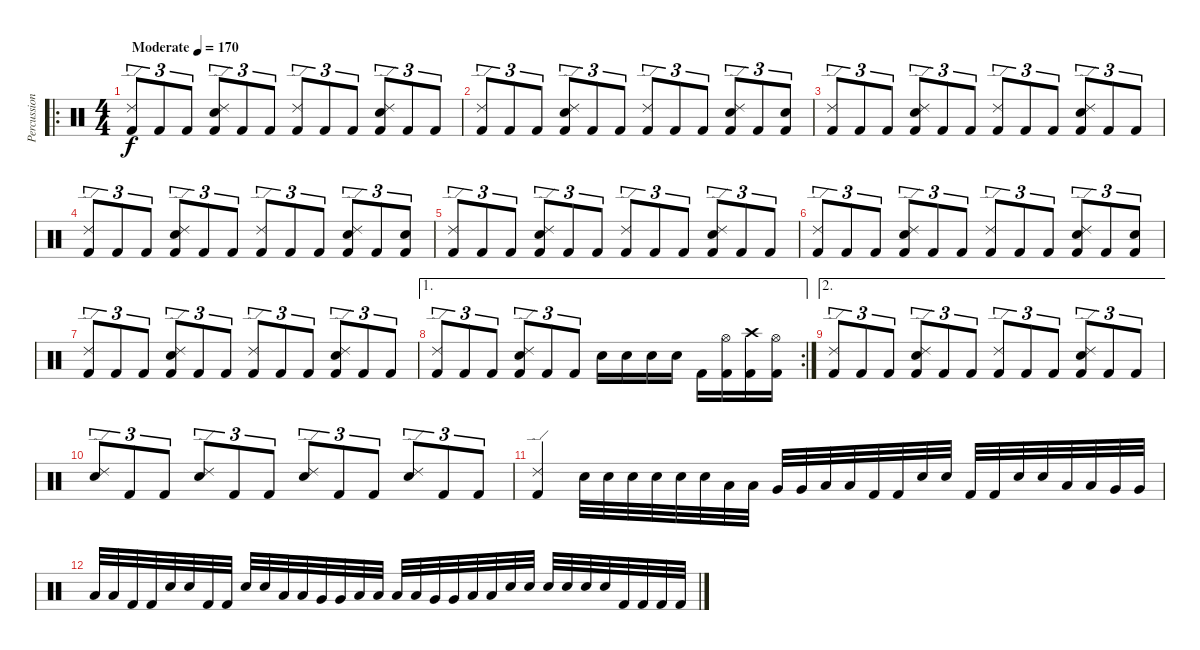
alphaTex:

\track ("Percussion" "Percussion") {instrument percussion}
\staff {score}
\articulation defaults
\ro
\ts (4 4)
\tempo (170 "Moderate")
\clef neutral
\ks c
("Ride (edge) 2" "Kick (hit) 2").8{tu (3 2) dy f} "Kick (hit) 2".8{tu (3 2)} "Kick (hit) 2".8{tu (3 2)} ("Ride (edge) 2" "Electric Snare (hit)" "Kick (hit) 2").8{tu (3 2)} "Kick (hit) 2".8{tu (3 2)} "Kick (hit) 2".8{tu (3 2)} ("Ride (edge) 2" "Kick (hit) 2").8{tu (3 2)} "Kick (hit) 2".8{tu (3 2)} "Kick (hit) 2".8{tu (3 2)} ("Ride (edge) 2" "Electric Snare (hit)" "Kick (hit) 2").8{tu (3 2)} "Kick (hit) 2".8{tu (3 2)} "Kick (hit) 2".8{tu (3 2)} |
("Ride (edge) 2" "Kick (hit) 2").8{tu (3 2)} "Kick (hit) 2".8{tu (3 2)} "Kick (hit) 2".8{tu (3 2)} ("Ride (edge) 2" "Electric Snare (hit)" "Kick (hit) 2").8{tu (3 2)} "Kick (hit) 2".8{tu (3 2)} "Kick (hit) 2".8{tu (3 2)} ("Ride (edge) 2" "Kick (hit) 2").8{tu (3 2)} "Kick (hit) 2".8{tu (3 2)} "Kick (hit) 2".8{tu (3 2)} ("Ride (edge) 2" "Electric Snare (hit)" "Kick (hit) 2").8{tu (3 2)} "Kick (hit) 2".8{tu (3 2)} ("Electric Snare (hit)" "Kick (hit) 2").8{tu (3 2)} |
("Ride (edge) 2" "Kick (hit) 2").8{tu (3 2)} "Kick (hit) 2".8{tu (3 2)} "Kick (hit) 2".8{tu (3 2)} ("Ride (edge) 2" "Electric Snare (hit)" "Kick (hit) 2").8{tu (3 2)} "Kick (hit) 2".8{tu (3 2)} "Kick (hit) 2".8{tu (3 2)} ("Ride (edge) 2" "Kick (hit) 2").8{tu (3 2)} "Kick (hit) 2".8{tu (3 2)} "Kick (hit) 2".8{tu (3 2)} ("Ride (edge) 2" "Electric Snare (hit)" "Kick (hit) 2").8{tu (3 2)} "Kick (hit) 2".8{tu (3 2)} "Kick (hit) 2".8{tu (3 2)} |
("Ride (edge) 2" "Kick (hit) 2").8{tu (3 2)} "Kick (hit) 2".8{tu (3 2)} "Kick (hit) 2".8{tu (3 2)} ("Ride (edge) 2" "Electric Snare (hit)" "Kick (hit) 2").8{tu (3 2)} "Kick (hit) 2".8{tu (3 2)} "Kick (hit) 2".8{tu (3 2)} ("Ride (edge) 2" "Kick (hit) 2").8{tu (3 2)} "Kick (hit) 2".8{tu (3 2)} "Kick (hit) 2".8{tu (3 2)} ("Ride (edge) 2" "Electric Snare (hit)" "Kick (hit) 2").8{tu (3 2)} "Kick (hit) 2".8{tu (3 2)} ("Electric Snare (hit)" "Kick (hit) 2").8{tu (3 2)} |
("Ride (edge) 2" "Kick (hit) 2").8{tu (3 2)} "Kick (hit) 2".8{tu (3 2)} "Kick (hit) 2".8{tu (3 2)} ("Ride (edge) 2" "Electric Snare (hit)" "Kick (hit) 2").8{tu (3 2)} "Kick (hit) 2".8{tu (3 2)} "Kick (hit) 2".8{tu (3 2)} ("Ride (edge) 2" "Kick (hit) 2").8{tu (3 2)} "Kick (hit) 2".8{tu (3 2)} "Kick (hit) 2".8{tu (3 2)} ("Ride (edge) 2" "Electric Snare (hit)" "Kick (hit) 2").8{tu (3 2)} "Kick (hit) 2".8{tu (3 2)} "Kick (hit) 2".8{tu (3 2)} |
("Ride (edge) 2" "Kick (hit) 2").8{tu (3 2)} "Kick (hit) 2".8{tu (3 2)} "Kick (hit) 2".8{tu (3 2)} ("Ride (edge) 2" "Electric Snare (hit)" "Kick (hit) 2").8{tu (3 2)} "Kick (hit) 2".8{tu (3 2)} "Kick (hit) 2".8{tu (3 2)} ("Ride (edge) 2" "Kick (hit) 2").8{tu (3 2)} "Kick (hit) 2".8{tu (3 2)} "Kick (hit) 2".8{tu (3 2)} ("Ride (edge) 2" "Electric Snare (hit)" "Kick (hit) 2").8{tu (3 2)} "Kick (hit) 2".8{tu (3 2)} ("Electric Snare (hit)" "Kick (hit) 2").8{tu (3 2)} |
("Ride (edge) 2" "Kick (hit) 2").8{tu (3 2)} "Kick (hit) 2".8{tu (3 2)} "Kick (hit) 2".8{tu (3 2)} ("Ride (edge) 2" "Electric Snare (hit)" "Kick (hit) 2").8{tu (3 2)} "Kick (hit) 2".8{tu (3 2)} "Kick (hit) 2".8{tu (3 2)} ("Ride (edge) 2" "Kick (hit) 2").8{tu (3 2)} "Kick (hit) 2".8{tu (3 2)} "Kick (hit) 2".8{tu (3 2)} ("Ride (edge) 2" "Electric Snare (hit)" "Kick (hit) 2").8{tu (3 2)} "Kick (hit) 2".8{tu (3 2)} "Kick (hit) 2".8{tu (3 2)} |
\ae 1
\rc 2
("Ride (edge) 2" "Kick (hit) 2").8{tu (3 2)} "Kick (hit) 2".8{tu (3 2)} "Kick (hit) 2".8{tu (3 2)} ("Ride (edge) 2" "Electric Snare (hit)" "Kick (hit) 2").8{tu (3 2)} "Kick (hit) 2".8{tu (3 2)} "Kick (hit) 2".8{tu (3 2)} "Electric Snare (hit)".16 "Electric Snare (hit)".16 "Electric Snare (hit)".16 "Electric Snare (hit)".16 "Kick (hit) 2".16 ("Hi-Hat (open)" "Kick (hit) 2").16 ("Crash high (hit)" "Kick (hit) 2").16 ("Hi-Hat (open)" "Kick (hit) 2").16 |
\ae 2
("Ride (edge) 2" "Kick (hit) 2").8{tu (3 2)} "Kick (hit) 2".8{tu (3 2)} "Kick (hit) 2".8{tu (3 2)} ("Ride (edge) 2" "Electric Snare (hit)" "Kick (hit) 2").8{tu (3 2)} "Kick (hit) 2".8{tu (3 2)} "Kick (hit) 2".8{tu (3 2)} ("Ride (edge) 2" "Kick (hit) 2").8{tu (3 2)} "Kick (hit) 2".8{tu (3 2)} "Kick (hit) 2".8{tu (3 2)} ("Ride (edge) 2" "Electric Snare (hit)" "Kick (hit) 2").8{tu (3 2)} "Kick (hit) 2".8{tu (3 2)} "Kick (hit) 2".8{tu (3 2)} |
("Ride (edge) 2" "Electric Snare (hit)").8{tu (3 2)} "Kick (hit) 2".8{tu (3 2)} "Kick (hit) 2".8{tu (3 2)} ("Ride (edge) 2" "Electric Snare (hit)").8{tu (3 2)} "Kick (hit) 2".8{tu (3 2)} "Kick (hit) 2".8{tu (3 2)} ("Ride (edge) 2" "Electric Snare (hit)").8{tu (3 2)} "Kick (hit) 2".8{tu (3 2)} "Kick (hit) 2".8{tu (3 2)} ("Ride (edge) 2" "Electric Snare (hit)").8{tu (3 2)} "Kick (hit) 2".8{tu (3 2)} "Kick (hit) 2".8{tu (3 2)} |
("Ride (edge) 2" "Kick (hit) 2").4 "Electric Snare (hit)".32 "Electric Snare (hit)".32 "Electric Snare (hit)".32 "Electric Snare (hit)".32 "Electric Snare (hit)".32 "Electric Snare (hit)".32 "Low Tom (hit)".32 "Low Tom (hit)".32 "Very Low Tom (hit)".32 "Very Low Tom (hit)".32 "Low Floor Tom (hit)".32 "Low Floor Tom (hit)".32 "Kick (hit) 2".32 "Kick (hit) 2".32 "Electric Snare (hit)".32 "Electric Snare (hit)".32 "Kick (hit) 2".32 "Kick (hit) 2".32 "Electric Snare (hit)".32 "Electric Snare (hit)".32 "Low Tom (hit)".32 "Low Tom (hit)".32 "Very Low Tom (hit)".32 "Very Low Tom (hit)".32 |
"Low Floor Tom (hit)".32 "Low Floor Tom (hit)".32 "Kick (hit) 2".32 "Kick (hit) 2".32 "Electric Snare (hit)".32 "Electric Snare (hit)".32 "Kick (hit) 2".32 "Kick (hit) 2".32 "Electric Snare (hit)".32 "Electric Snare (hit)".32 "Low Tom (hit)".32 "Low Tom (hit)".32 "Very Low Tom (hit)".32 "Very Low Tom (hit)".32 "Low Floor Tom (hit)".32 "Low Floor Tom (hit)".32 "Low Tom (hit)".32 "Low Tom (hit)".32 "Very Low Tom (hit)".32 "Very Low Tom (hit)".32 "Low Floor Tom (hit)".32 "Low Floor Tom (hit)".32 "Electric Snare (hit)".32 "Electric Snare (hit)".32 "Electric Snare (hit)".32 "Electric Snare (hit)".32 "Electric Snare (hit)".32 "Electric Snare (hit)".32 "Kick (hit) 2".32 "Kick (hit) 2".32 "Kick (hit) 2".32 "Kick (hit) 2".32
